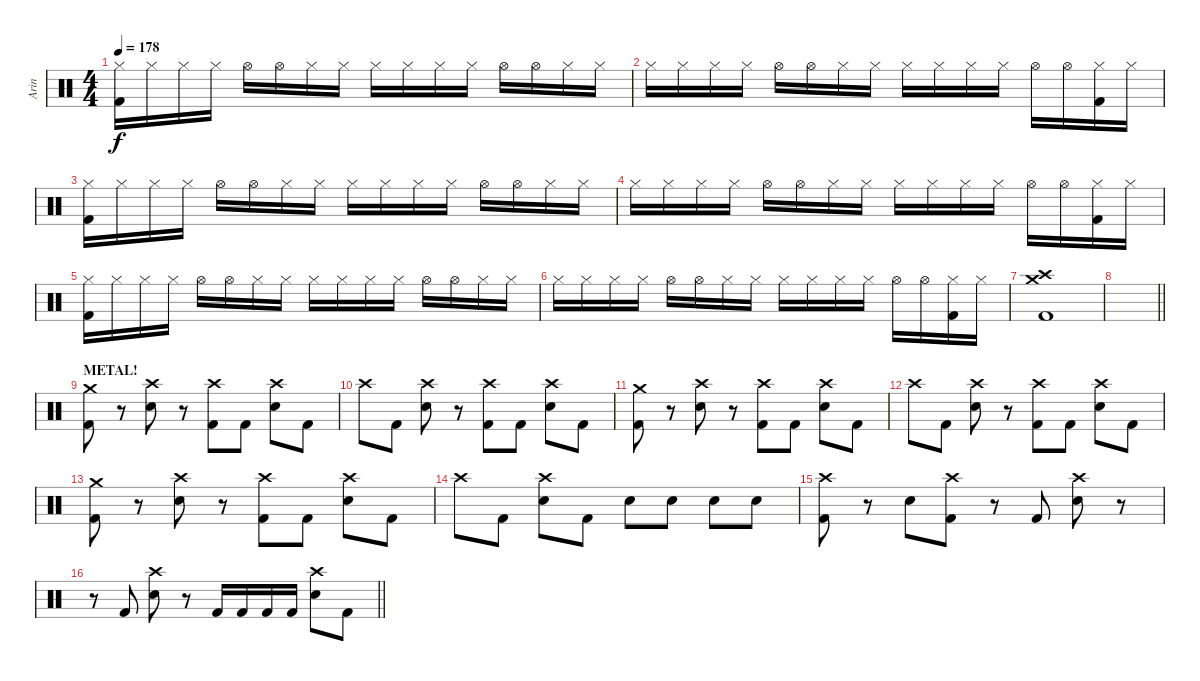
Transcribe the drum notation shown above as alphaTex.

\track ("Arin" "Arin") {instrument percussion}
\staff {score}
\articulation defaults
\ts (4 4)
\tempo 178
\clef neutral
\ks c
("Hi-Hat (closed)" "Kick (hit) 2").16{dy f} "Hi-Hat (closed)".16 "Hi-Hat (closed)".16 "Hi-Hat (closed)".16 "Hi-Hat (open)".16 "Hi-Hat (open)".16 "Hi-Hat (closed)".16 "Hi-Hat (closed)".16 "Hi-Hat (closed)".16 "Hi-Hat (closed)".16 "Hi-Hat (closed)".16 "Hi-Hat (closed)".16 "Hi-Hat (open)".16 "Hi-Hat (open)".16 "Hi-Hat (closed)".16 "Hi-Hat (closed)".16 |
"Hi-Hat (closed)".16 "Hi-Hat (closed)".16 "Hi-Hat (closed)".16 "Hi-Hat (closed)".16 "Hi-Hat (open)".16 "Hi-Hat (open)".16 "Hi-Hat (closed)".16 "Hi-Hat (closed)".16 "Hi-Hat (closed)".16 "Hi-Hat (closed)".16 "Hi-Hat (closed)".16 "Hi-Hat (closed)".16 "Hi-Hat (open)".16 "Hi-Hat (open)".16 ("Hi-Hat (closed)" "Kick (hit) 2").16 "Hi-Hat (closed)".16 |
("Hi-Hat (closed)" "Kick (hit) 2").16 "Hi-Hat (closed)".16 "Hi-Hat (closed)".16 "Hi-Hat (closed)".16 "Hi-Hat (open)".16 "Hi-Hat (open)".16 "Hi-Hat (closed)".16 "Hi-Hat (closed)".16 "Hi-Hat (closed)".16 "Hi-Hat (closed)".16 "Hi-Hat (closed)".16 "Hi-Hat (closed)".16 "Hi-Hat (open)".16 "Hi-Hat (open)".16 "Hi-Hat (closed)".16 "Hi-Hat (closed)".16 |
"Hi-Hat (closed)".16 "Hi-Hat (closed)".16 "Hi-Hat (closed)".16 "Hi-Hat (closed)".16 "Hi-Hat (open)".16 "Hi-Hat (open)".16 "Hi-Hat (closed)".16 "Hi-Hat (closed)".16 "Hi-Hat (closed)".16 "Hi-Hat (closed)".16 "Hi-Hat (closed)".16 "Hi-Hat (closed)".16 "Hi-Hat (open)".16 "Hi-Hat (open)".16 ("Hi-Hat (closed)" "Kick (hit) 2").16 "Hi-Hat (closed)".16 |
("Hi-Hat (closed)" "Kick (hit) 2").16 "Hi-Hat (closed)".16 "Hi-Hat (closed)".16 "Hi-Hat (closed)".16 "Hi-Hat (open)".16 "Hi-Hat (open)".16 "Hi-Hat (closed)".16 "Hi-Hat (closed)".16 "Hi-Hat (closed)".16 "Hi-Hat (closed)".16 "Hi-Hat (closed)".16 "Hi-Hat (closed)".16 "Hi-Hat (open)".16 "Hi-Hat (open)".16 "Hi-Hat (closed)".16 "Hi-Hat (closed)".16 |
"Hi-Hat (closed)".16 "Hi-Hat (closed)".16 "Hi-Hat (closed)".16 "Hi-Hat (closed)".16 "Hi-Hat (open)".16 "Hi-Hat (open)".16 "Hi-Hat (closed)".16 "Hi-Hat (closed)".16 "Hi-Hat (closed)".16 "Hi-Hat (closed)".16 "Hi-Hat (closed)".16 "Hi-Hat (closed)".16 "Hi-Hat (open)".16 "Hi-Hat (open)".16 ("Hi-Hat (closed)" "Kick (hit) 2").16 "Hi-Hat (closed)".16 |
("Crash medium (hit)" "Crash high (hit)" "Kick (hit) 2").1 |
\barLineRight lightlight
|
\section ("" "METAL!")
("Crash medium (hit)" "Kick (hit) 2").8 r.8 ("Crash high (hit)" "Snare (hit) 2").8 r.8 ("Crash high (hit)" "Kick (hit) 2").8 "Kick (hit) 2".8 ("Crash high (hit)" "Snare (hit) 2").8 "Kick (hit) 2".8 |
"Crash high (hit)".8 "Kick (hit) 2".8 ("Crash high (hit)" "Snare (hit) 2").8 r.8 ("Crash high (hit)" "Kick (hit) 2").8 "Kick (hit) 2".8 ("Crash high (hit)" "Snare (hit) 2").8 "Kick (hit) 2".8 |
("Crash medium (hit)" "Kick (hit) 2").8 r.8 ("Crash high (hit)" "Snare (hit) 2").8 r.8 ("Crash high (hit)" "Kick (hit) 2").8 "Kick (hit) 2".8 ("Crash high (hit)" "Snare (hit) 2").8 "Kick (hit) 2".8 |
"Crash high (hit)".8 "Kick (hit) 2".8 ("Crash high (hit)" "Snare (hit) 2").8 r.8 ("Crash high (hit)" "Kick (hit) 2").8 "Kick (hit) 2".8 ("Crash high (hit)" "Snare (hit) 2").8 "Kick (hit) 2".8 |
("Crash medium (hit)" "Kick (hit) 2").8 r.8 ("Crash high (hit)" "Snare (hit) 2").8 r.8 ("Crash high (hit)" "Kick (hit) 2").8 "Kick (hit) 2".8 ("Crash high (hit)" "Snare (hit) 2").8 "Kick (hit) 2".8 |
"Crash high (hit)".8 "Kick (hit) 2".8 ("Crash high (hit)" "Snare (hit) 2").8 "Kick (hit) 2".8 "Snare (hit) 2".8 "Snare (hit) 2".8 "Snare (hit) 2".8 "Snare (hit) 2".8 |
("Crash high (hit)" "Kick (hit) 2").8 r.8 "Snare (hit) 2".8 ("Crash high (hit)" "Kick (hit) 2").8 r.8 "Kick (hit) 2".8 ("Crash high (hit)" "Snare (hit) 2").8 r.8 |
\barLineRight lightlight
r.8 "Kick (hit) 2".8 ("Crash high (hit)" "Snare (hit) 2").8 r.8 "Kick (hit) 2".16 "Kick (hit) 2".16 "Kick (hit) 2".16 "Kick (hit) 2".16 ("Crash high (hit)" "Snare (hit) 2").8 "Kick (hit) 2".8
